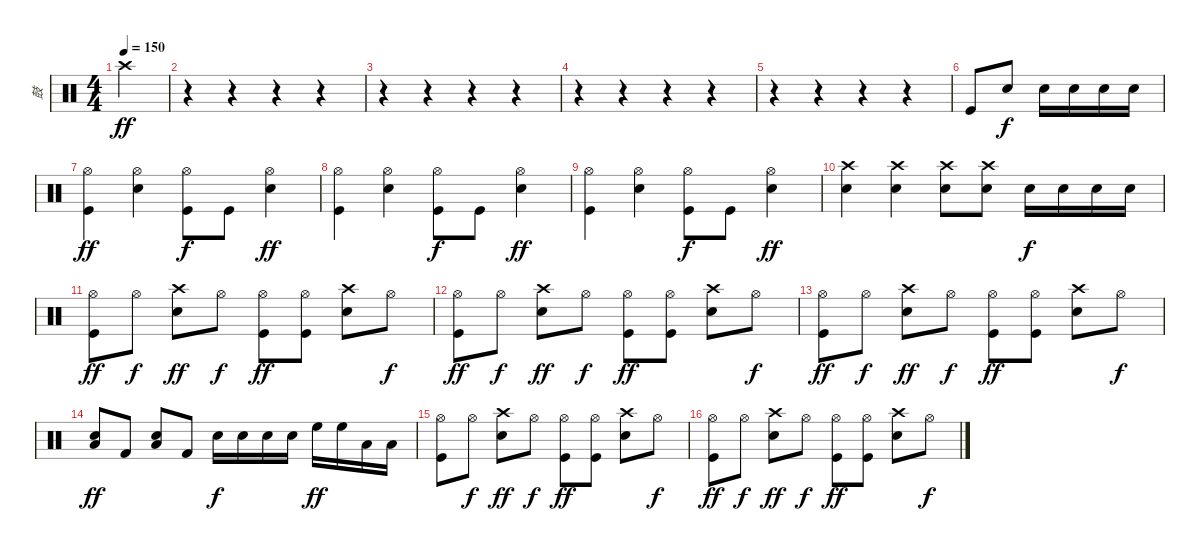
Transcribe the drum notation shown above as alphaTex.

\track ("鼓" "鼓") {instrument percussion}
\staff {score}
\articulation defaults
\ts (4 4)
\section ("" "")
\tempo 150
\clef neutral
\ks c "Crash high (hit)".4{dy ff volume 12}
|
r.4 r.4 r.4 r.4 |
r.4 r.4 r.4 r.4 |
r.4 r.4 r.4 r.4 |
r.4 r.4 r.4 r.4 |
"Kick (hit)".8 "Snare (hit) 2".8{dy f} "Snare (hit) 2".16 "Snare (hit) 2".16 "Snare (hit) 2".16 "Snare (hit) 2".16 |
("Hi-Hat (open)" "Kick (hit)").4{dy ff} ("Hi-Hat (open)" "Electric Snare (hit)").4 ("Hi-Hat (open)" "Kick (hit)").8{dy f} "Kick (hit)".8 ("Hi-Hat (open)" "Electric Snare (hit)").4{dy ff} |
("Hi-Hat (open)" "Kick (hit)").4 ("Hi-Hat (open)" "Electric Snare (hit)").4 ("Hi-Hat (open)" "Kick (hit)").8{dy f} "Kick (hit)".8 ("Hi-Hat (open)" "Electric Snare (hit)").4{dy ff} |
("Hi-Hat (open)" "Kick (hit)").4 ("Hi-Hat (open)" "Electric Snare (hit)").4 ("Hi-Hat (open)" "Kick (hit)").8{dy f} "Kick (hit)".8 ("Hi-Hat (open)" "Electric Snare (hit)").4{dy ff} |
("Crash high (hit)" "Electric Snare (hit)").4 ("Crash high (hit)" "Electric Snare (hit)").4 ("Crash high (hit)" "Electric Snare (hit)").8 ("Crash high (hit)" "Electric Snare (hit)").8 "Snare (hit) 2".16{dy f} "Snare (hit) 2".16 "Snare (hit) 2".16 "Snare (hit) 2".16 |
("Hi-Hat (open)" "Kick (hit)").8{dy ff} "Hi-Hat (open)".8{dy f} ("Crash high (hit)" "Electric Snare (hit)").8{dy ff} "Hi-Hat (open)".8{dy f} ("Hi-Hat (open)" "Kick (hit)").8{dy ff} ("Hi-Hat (open)" "Kick (hit)").8 ("Crash high (hit)" "Electric Snare (hit)").8 "Hi-Hat (open)".8{dy f} |
("Hi-Hat (open)" "Kick (hit)").8{dy ff} "Hi-Hat (open)".8{dy f} ("Crash high (hit)" "Electric Snare (hit)").8{dy ff} "Hi-Hat (open)".8{dy f} ("Hi-Hat (open)" "Kick (hit)").8{dy ff} ("Hi-Hat (open)" "Kick (hit)").8 ("Crash high (hit)" "Electric Snare (hit)").8 "Hi-Hat (open)".8{dy f} |
("Hi-Hat (open)" "Kick (hit)").8{dy ff} "Hi-Hat (open)".8{dy f} ("Crash high (hit)" "Electric Snare (hit)").8{dy ff} "Hi-Hat (open)".8{dy f} ("Hi-Hat (open)" "Kick (hit)").8{dy ff} ("Hi-Hat (open)" "Kick (hit)").8 ("Crash high (hit)" "Electric Snare (hit)").8 "Hi-Hat (open)".8{dy f} |
("Electric Snare (hit)" "Low Tom (hit)").8{dy ff} "Kick (hit) 2".8 ("Electric Snare (hit)" "Low Tom (hit)").8 "Kick (hit) 2".8 "Snare (hit) 2".16{dy f} "Snare (hit) 2".16 "Snare (hit) 2".16 "Snare (hit) 2".16 "High Floor Tom (hit)".16{dy ff} "High Floor Tom (hit)".16 "Low Tom (hit)".16 "Low Tom (hit)".16 |
("Hi-Hat (open)" "Kick (hit)").8 "Hi-Hat (open)".8{dy f} ("Crash high (hit)" "Electric Snare (hit)").8{dy ff} "Hi-Hat (open)".8{dy f} ("Hi-Hat (open)" "Kick (hit)").8{dy ff} ("Hi-Hat (open)" "Kick (hit)").8 ("Crash high (hit)" "Electric Snare (hit)").8 "Hi-Hat (open)".8{dy f} |
("Hi-Hat (open)" "Kick (hit)").8{dy ff} "Hi-Hat (open)".8{dy f} ("Crash high (hit)" "Electric Snare (hit)").8{dy ff} "Hi-Hat (open)".8{dy f} ("Hi-Hat (open)" "Kick (hit)").8{dy ff} ("Hi-Hat (open)" "Kick (hit)").8 ("Crash high (hit)" "Electric Snare (hit)").8 "Hi-Hat (open)".8{dy f}
